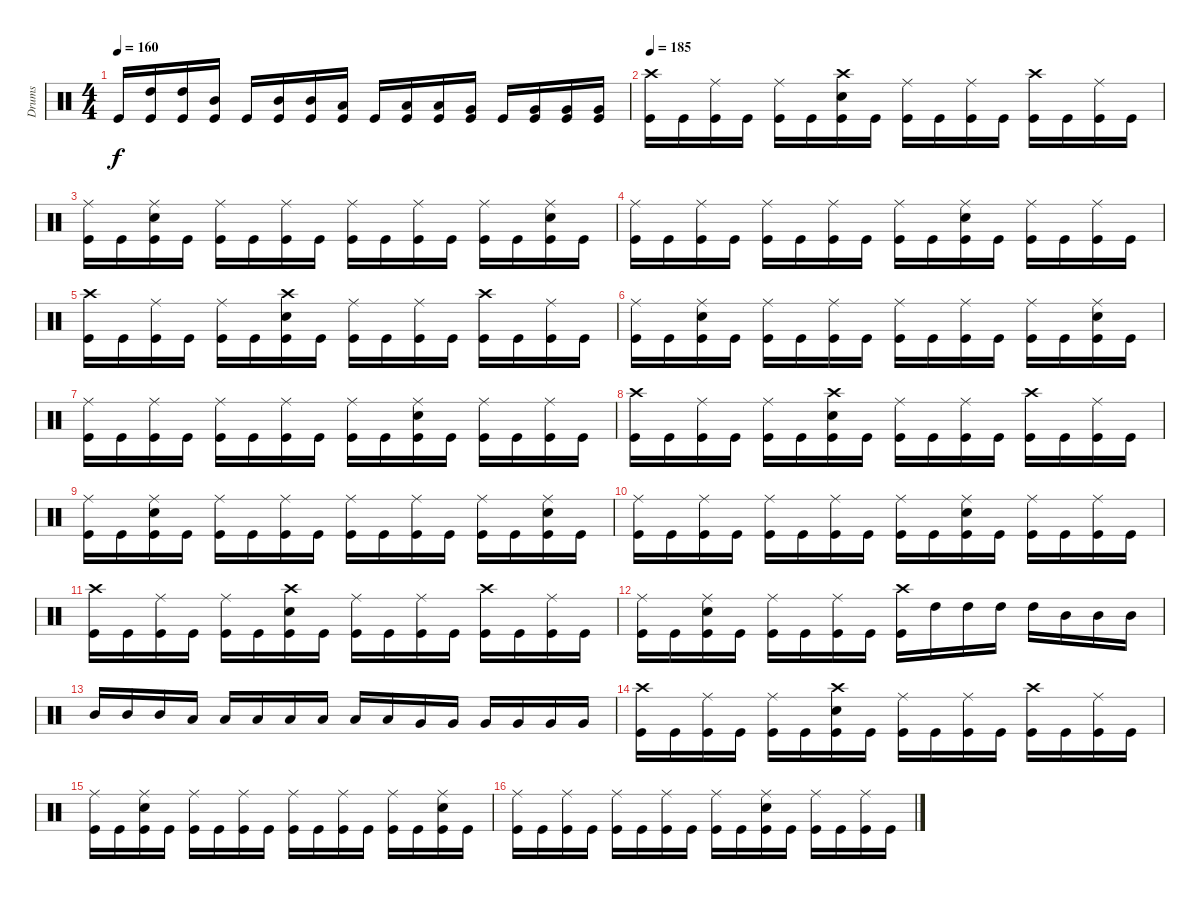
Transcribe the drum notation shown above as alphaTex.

\track ("Drums" "Drums") {instrument percussion}
\staff {score}
\articulation defaults
\ts (4 4)
\tempo 160
\clef neutral
\ks c "Kick (hit)".16{dy f}
("High Tom (hit)" "Kick (hit)").16 ("High Tom (hit)" "Kick (hit)").16 ("Mid Tom (hit)" "Kick (hit)").16 "Kick (hit)".16 ("Mid Tom (hit)" "Kick (hit)").16 ("Mid Tom (hit)" "Kick (hit)").16 ("Low Tom (hit)" "Kick (hit)").16 "Kick (hit)".16 ("Low Tom (hit)" "Kick (hit)").16 ("Low Tom (hit)" "Kick (hit)").16 ("Very Low Tom (hit)" "Kick (hit)").16 "Kick (hit)".16 ("Very Low Tom (hit)" "Kick (hit)").16 ("Very Low Tom (hit)" "Kick (hit)").16 ("Very Low Tom (hit)" "Kick (hit)").16 |
\tempo 185
("Crash high (hit)" "Kick (hit)").16 "Kick (hit)".16 ("Ride (middle)" "Kick (hit)").16 "Kick (hit)".16 ("Ride (middle)" "Kick (hit)").16 "Kick (hit)".16 ("Crash high (hit)" "Electric Snare (hit)" "Kick (hit)").16 "Kick (hit)".16 ("Ride (middle)" "Kick (hit)").16 "Kick (hit)".16 ("Ride (middle)" "Kick (hit)").16 "Kick (hit)".16 ("Crash high (hit)" "Kick (hit)").16 "Kick (hit)".16 ("Ride (middle)" "Kick (hit)").16 "Kick (hit)".16 |
("Ride (middle)" "Kick (hit)").16 "Kick (hit)".16 ("Ride (middle)" "Electric Snare (hit)" "Kick (hit)").16 "Kick (hit)".16 ("Ride (middle)" "Kick (hit)").16 "Kick (hit)".16 ("Ride (middle)" "Kick (hit)").16 "Kick (hit)".16 ("Ride (middle)" "Kick (hit)").16 "Kick (hit)".16 ("Ride (middle)" "Kick (hit)").16 "Kick (hit)".16 ("Ride (middle)" "Kick (hit)").16 "Kick (hit)".16 ("Ride (middle)" "Electric Snare (hit)" "Kick (hit)").16 "Kick (hit)".16 |
("Ride (middle)" "Kick (hit)").16 "Kick (hit)".16 ("Ride (middle)" "Kick (hit)").16 "Kick (hit)".16 ("Ride (middle)" "Kick (hit)").16 "Kick (hit)".16 ("Ride (middle)" "Kick (hit)").16 "Kick (hit)".16 ("Ride (middle)" "Kick (hit)").16 "Kick (hit)".16 ("Ride (middle)" "Electric Snare (hit)" "Kick (hit)").16 "Kick (hit)".16 ("Ride (middle)" "Kick (hit)").16 "Kick (hit)".16 ("Ride (middle)" "Kick (hit)").16 "Kick (hit)".16 |
("Crash high (hit)" "Kick (hit)").16 "Kick (hit)".16 ("Ride (middle)" "Kick (hit)").16 "Kick (hit)".16 ("Ride (middle)" "Kick (hit)").16 "Kick (hit)".16 ("Crash high (hit)" "Electric Snare (hit)" "Kick (hit)").16 "Kick (hit)".16 ("Ride (middle)" "Kick (hit)").16 "Kick (hit)".16 ("Ride (middle)" "Kick (hit)").16 "Kick (hit)".16 ("Crash high (hit)" "Kick (hit)").16 "Kick (hit)".16 ("Ride (middle)" "Kick (hit)").16 "Kick (hit)".16 |
("Ride (middle)" "Kick (hit)").16 "Kick (hit)".16 ("Ride (middle)" "Electric Snare (hit)" "Kick (hit)").16 "Kick (hit)".16 ("Ride (middle)" "Kick (hit)").16 "Kick (hit)".16 ("Ride (middle)" "Kick (hit)").16 "Kick (hit)".16 ("Ride (middle)" "Kick (hit)").16 "Kick (hit)".16 ("Ride (middle)" "Kick (hit)").16 "Kick (hit)".16 ("Ride (middle)" "Kick (hit)").16 "Kick (hit)".16 ("Ride (middle)" "Electric Snare (hit)" "Kick (hit)").16 "Kick (hit)".16 |
("Ride (middle)" "Kick (hit)").16 "Kick (hit)".16 ("Ride (middle)" "Kick (hit)").16 "Kick (hit)".16 ("Ride (middle)" "Kick (hit)").16 "Kick (hit)".16 ("Ride (middle)" "Kick (hit)").16 "Kick (hit)".16 ("Ride (middle)" "Kick (hit)").16 "Kick (hit)".16 ("Ride (middle)" "Electric Snare (hit)" "Kick (hit)").16 "Kick (hit)".16 ("Ride (middle)" "Kick (hit)").16 "Kick (hit)".16 ("Ride (middle)" "Kick (hit)").16 "Kick (hit)".16 |
("Crash high (hit)" "Kick (hit)").16 "Kick (hit)".16 ("Ride (middle)" "Kick (hit)").16 "Kick (hit)".16 ("Ride (middle)" "Kick (hit)").16 "Kick (hit)".16 ("Crash high (hit)" "Electric Snare (hit)" "Kick (hit)").16 "Kick (hit)".16 ("Ride (middle)" "Kick (hit)").16 "Kick (hit)".16 ("Ride (middle)" "Kick (hit)").16 "Kick (hit)".16 ("Crash high (hit)" "Kick (hit)").16 "Kick (hit)".16 ("Ride (middle)" "Kick (hit)").16 "Kick (hit)".16 |
("Ride (middle)" "Kick (hit)").16 "Kick (hit)".16 ("Ride (middle)" "Electric Snare (hit)" "Kick (hit)").16 "Kick (hit)".16 ("Ride (middle)" "Kick (hit)").16 "Kick (hit)".16 ("Ride (middle)" "Kick (hit)").16 "Kick (hit)".16 ("Ride (middle)" "Kick (hit)").16 "Kick (hit)".16 ("Ride (middle)" "Kick (hit)").16 "Kick (hit)".16 ("Ride (middle)" "Kick (hit)").16 "Kick (hit)".16 ("Ride (middle)" "Electric Snare (hit)" "Kick (hit)").16 "Kick (hit)".16 |
("Ride (middle)" "Kick (hit)").16 "Kick (hit)".16 ("Ride (middle)" "Kick (hit)").16 "Kick (hit)".16 ("Ride (middle)" "Kick (hit)").16 "Kick (hit)".16 ("Ride (middle)" "Kick (hit)").16 "Kick (hit)".16 ("Ride (middle)" "Kick (hit)").16 "Kick (hit)".16 ("Ride (middle)" "Electric Snare (hit)" "Kick (hit)").16 "Kick (hit)".16 ("Ride (middle)" "Kick (hit)").16 "Kick (hit)".16 ("Ride (middle)" "Kick (hit)").16 "Kick (hit)".16 |
("Crash high (hit)" "Kick (hit)").16 "Kick (hit)".16 ("Ride (middle)" "Kick (hit)").16 "Kick (hit)".16 ("Ride (middle)" "Kick (hit)").16 "Kick (hit)".16 ("Crash high (hit)" "Electric Snare (hit)" "Kick (hit)").16 "Kick (hit)".16 ("Ride (middle)" "Kick (hit)").16 "Kick (hit)".16 ("Ride (middle)" "Kick (hit)").16 "Kick (hit)".16 ("Crash high (hit)" "Kick (hit)").16 "Kick (hit)".16 ("Ride (middle)" "Kick (hit)").16 "Kick (hit)".16 |
("Ride (middle)" "Kick (hit)").16 "Kick (hit)".16 ("Ride (middle)" "Electric Snare (hit)" "Kick (hit)").16 "Kick (hit)".16 ("Ride (middle)" "Kick (hit)").16 "Kick (hit)".16 ("Ride (middle)" "Kick (hit)").16 "Kick (hit)".16 ("Crash high (hit)" "Kick (hit)").16 "High Tom (hit)".16 "High Tom (hit)".16 "High Tom (hit)".16 "High Tom (hit)".16 "Mid Tom (hit)".16 "Mid Tom (hit)".16 "Mid Tom (hit)".16 |
"Mid Tom (hit)".16 "Mid Tom (hit)".16 "Mid Tom (hit)".16 "Low Tom (hit)".16 "Low Tom (hit)".16 "Low Tom (hit)".16 "Low Tom (hit)".16 "Low Tom (hit)".16 "Low Tom (hit)".16 "Low Tom (hit)".16 "Very Low Tom (hit)".16 "Very Low Tom (hit)".16 "Very Low Tom (hit)".16 "Very Low Tom (hit)".16 "Very Low Tom (hit)".16 "Very Low Tom (hit)".16 |
("Crash high (hit)" "Kick (hit)").16 "Kick (hit)".16 ("Ride (middle)" "Kick (hit)").16 "Kick (hit)".16 ("Ride (middle)" "Kick (hit)").16 "Kick (hit)".16 ("Crash high (hit)" "Electric Snare (hit)" "Kick (hit)").16 "Kick (hit)".16 ("Ride (middle)" "Kick (hit)").16 "Kick (hit)".16 ("Ride (middle)" "Kick (hit)").16 "Kick (hit)".16 ("Crash high (hit)" "Kick (hit)").16 "Kick (hit)".16 ("Ride (middle)" "Kick (hit)").16 "Kick (hit)".16 |
("Ride (middle)" "Kick (hit)").16 "Kick (hit)".16 ("Ride (middle)" "Electric Snare (hit)" "Kick (hit)").16 "Kick (hit)".16 ("Ride (middle)" "Kick (hit)").16 "Kick (hit)".16 ("Ride (middle)" "Kick (hit)").16 "Kick (hit)".16 ("Ride (middle)" "Kick (hit)").16 "Kick (hit)".16 ("Ride (middle)" "Kick (hit)").16 "Kick (hit)".16 ("Ride (middle)" "Kick (hit)").16 "Kick (hit)".16 ("Ride (middle)" "Electric Snare (hit)" "Kick (hit)").16 "Kick (hit)".16 |
("Ride (middle)" "Kick (hit)").16 "Kick (hit)".16 ("Ride (middle)" "Kick (hit)").16 "Kick (hit)".16 ("Ride (middle)" "Kick (hit)").16 "Kick (hit)".16 ("Ride (middle)" "Kick (hit)").16 "Kick (hit)".16 ("Ride (middle)" "Kick (hit)").16 "Kick (hit)".16 ("Ride (middle)" "Electric Snare (hit)" "Kick (hit)").16 "Kick (hit)".16 ("Ride (middle)" "Kick (hit)").16 "Kick (hit)".16 ("Ride (middle)" "Kick (hit)").16 "Kick (hit)".16
